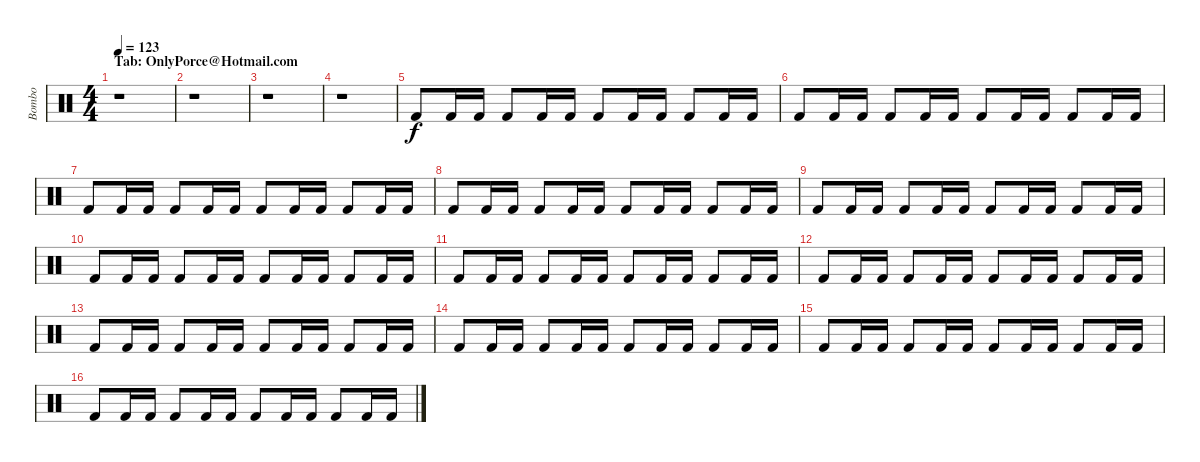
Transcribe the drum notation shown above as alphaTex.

\track ("Bombo" "Bombo") {instrument percussion}
\staff {score}
\articulation defaults
\ts (4 4)
\section ("" "Tab: OnlyPorce@Hotmail.com")
\tempo 123
\clef neutral
\ks c
r.1{dy f} |
r.1 |
r.1 |
r.1 |
"Kick (hit) 2".8 "Kick (hit) 2".16 "Kick (hit) 2".16 "Kick (hit) 2".8 "Kick (hit) 2".16 "Kick (hit) 2".16 "Kick (hit) 2".8 "Kick (hit) 2".16 "Kick (hit) 2".16 "Kick (hit) 2".8 "Kick (hit) 2".16 "Kick (hit) 2".16 |
"Kick (hit) 2".8 "Kick (hit) 2".16 "Kick (hit) 2".16 "Kick (hit) 2".8 "Kick (hit) 2".16 "Kick (hit) 2".16 "Kick (hit) 2".8 "Kick (hit) 2".16 "Kick (hit) 2".16 "Kick (hit) 2".8 "Kick (hit) 2".16 "Kick (hit) 2".16 |
"Kick (hit) 2".8 "Kick (hit) 2".16 "Kick (hit) 2".16 "Kick (hit) 2".8 "Kick (hit) 2".16 "Kick (hit) 2".16 "Kick (hit) 2".8 "Kick (hit) 2".16 "Kick (hit) 2".16 "Kick (hit) 2".8 "Kick (hit) 2".16 "Kick (hit) 2".16 |
"Kick (hit) 2".8 "Kick (hit) 2".16 "Kick (hit) 2".16 "Kick (hit) 2".8 "Kick (hit) 2".16 "Kick (hit) 2".16 "Kick (hit) 2".8 "Kick (hit) 2".16 "Kick (hit) 2".16 "Kick (hit) 2".8 "Kick (hit) 2".16 "Kick (hit) 2".16 |
"Kick (hit) 2".8 "Kick (hit) 2".16 "Kick (hit) 2".16 "Kick (hit) 2".8 "Kick (hit) 2".16 "Kick (hit) 2".16 "Kick (hit) 2".8 "Kick (hit) 2".16 "Kick (hit) 2".16 "Kick (hit) 2".8 "Kick (hit) 2".16 "Kick (hit) 2".16 |
"Kick (hit) 2".8 "Kick (hit) 2".16 "Kick (hit) 2".16 "Kick (hit) 2".8 "Kick (hit) 2".16 "Kick (hit) 2".16 "Kick (hit) 2".8 "Kick (hit) 2".16 "Kick (hit) 2".16 "Kick (hit) 2".8 "Kick (hit) 2".16 "Kick (hit) 2".16 |
"Kick (hit) 2".8 "Kick (hit) 2".16 "Kick (hit) 2".16 "Kick (hit) 2".8 "Kick (hit) 2".16 "Kick (hit) 2".16 "Kick (hit) 2".8 "Kick (hit) 2".16 "Kick (hit) 2".16 "Kick (hit) 2".8 "Kick (hit) 2".16 "Kick (hit) 2".16 |
"Kick (hit) 2".8 "Kick (hit) 2".16 "Kick (hit) 2".16 "Kick (hit) 2".8 "Kick (hit) 2".16 "Kick (hit) 2".16 "Kick (hit) 2".8 "Kick (hit) 2".16 "Kick (hit) 2".16 "Kick (hit) 2".8 "Kick (hit) 2".16 "Kick (hit) 2".16 |
"Kick (hit) 2".8 "Kick (hit) 2".16 "Kick (hit) 2".16 "Kick (hit) 2".8 "Kick (hit) 2".16 "Kick (hit) 2".16 "Kick (hit) 2".8 "Kick (hit) 2".16 "Kick (hit) 2".16 "Kick (hit) 2".8 "Kick (hit) 2".16 "Kick (hit) 2".16 |
"Kick (hit) 2".8 "Kick (hit) 2".16 "Kick (hit) 2".16 "Kick (hit) 2".8 "Kick (hit) 2".16 "Kick (hit) 2".16 "Kick (hit) 2".8 "Kick (hit) 2".16 "Kick (hit) 2".16 "Kick (hit) 2".8 "Kick (hit) 2".16 "Kick (hit) 2".16 |
"Kick (hit) 2".8 "Kick (hit) 2".16 "Kick (hit) 2".16 "Kick (hit) 2".8 "Kick (hit) 2".16 "Kick (hit) 2".16 "Kick (hit) 2".8 "Kick (hit) 2".16 "Kick (hit) 2".16 "Kick (hit) 2".8 "Kick (hit) 2".16 "Kick (hit) 2".16 |
"Kick (hit) 2".8 "Kick (hit) 2".16 "Kick (hit) 2".16 "Kick (hit) 2".8 "Kick (hit) 2".16 "Kick (hit) 2".16 "Kick (hit) 2".8 "Kick (hit) 2".16 "Kick (hit) 2".16 "Kick (hit) 2".8 "Kick (hit) 2".16 "Kick (hit) 2".16
